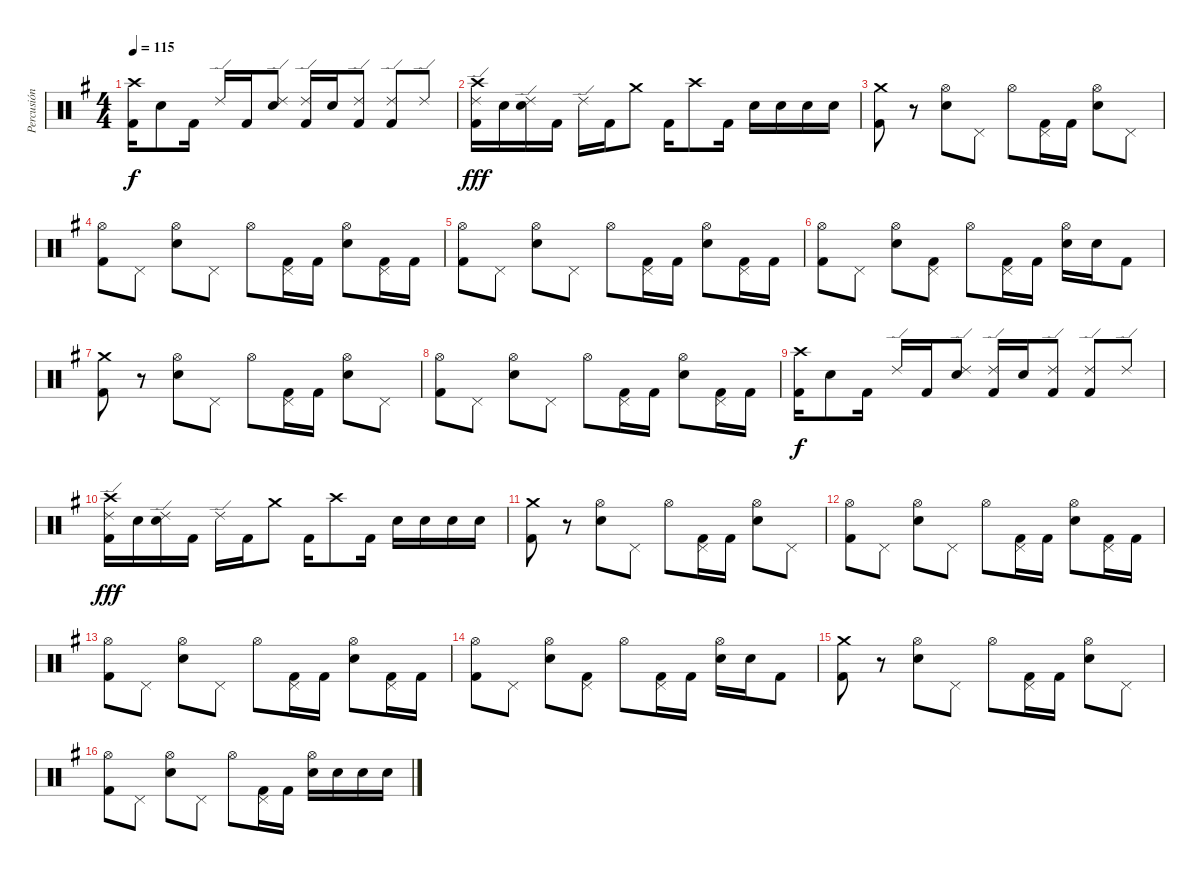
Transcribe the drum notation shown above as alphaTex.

\track ("Percusión" "Percusión") {instrument percussion}
\staff {score}
\articulation defaults
\ts (4 4)
\tempo 115
\clef neutral
\ks g
("Crash high (hit)" "Kick (hit) 2").16{dy f} "Electric Snare (hit)".8 "Kick (hit) 2".16 "Ride (edge) 2".16 "Kick (hit) 2".16 ("Ride (edge) 2" "Electric Snare (hit)").8 ("Ride (edge) 2" "Kick (hit) 2").16 "Electric Snare (hit)".16 ("Ride (edge) 2" "Kick (hit) 2").8 ("Ride (edge) 2" "Kick (hit) 2").8 "Ride (edge) 2".8 |
("Crash high (hit)" "Ride (edge) 2" "Kick (hit) 2").16{dy fff} "Electric Snare (hit)".16 ("Ride (edge) 2" "Electric Snare (hit)").16 "Kick (hit) 2".16 "Ride (edge) 2".16 "Kick (hit) 2".16 "Crash medium (hit)".8 "Kick (hit) 2".16 "Crash high (hit)".8 "Kick (hit) 2".16 "Electric Snare (hit)".16 "Electric Snare (hit)".16 "Electric Snare (hit)".16 "Electric Snare (hit)".16 |
("Crash medium (hit)" "Kick (hit) 2").8 r.8 ("Hi-Hat (open)" "Electric Snare (hit)").8 "Pedal Hi-Hat (hit)".8 "Hi-Hat (open)".8 ("Pedal Hi-Hat (hit)" "Kick (hit) 2").16 "Kick (hit) 2".16 ("Hi-Hat (open)" "Electric Snare (hit)").8 "Pedal Hi-Hat (hit)".8 |
("Hi-Hat (open)" "Kick (hit) 2").8 "Pedal Hi-Hat (hit)".8 ("Hi-Hat (open)" "Electric Snare (hit)").8 "Pedal Hi-Hat (hit)".8 "Hi-Hat (open)".8 ("Pedal Hi-Hat (hit)" "Kick (hit) 2").16 "Kick (hit) 2".16 ("Hi-Hat (open)" "Electric Snare (hit)").8 ("Pedal Hi-Hat (hit)" "Kick (hit) 2").16 "Kick (hit) 2".16 |
("Hi-Hat (open)" "Kick (hit) 2").8 "Pedal Hi-Hat (hit)".8 ("Hi-Hat (open)" "Electric Snare (hit)").8 "Pedal Hi-Hat (hit)".8 "Hi-Hat (open)".8 ("Pedal Hi-Hat (hit)" "Kick (hit) 2").16 "Kick (hit) 2".16 ("Hi-Hat (open)" "Electric Snare (hit)").8 ("Pedal Hi-Hat (hit)" "Kick (hit) 2").16 "Kick (hit) 2".16 |
("Hi-Hat (open)" "Kick (hit) 2").8 "Pedal Hi-Hat (hit)".8 ("Hi-Hat (open)" "Electric Snare (hit)").8 ("Pedal Hi-Hat (hit)" "Kick (hit) 2").8 "Hi-Hat (open)".8 ("Pedal Hi-Hat (hit)" "Kick (hit) 2").16 "Kick (hit) 2".16 ("Hi-Hat (open)" "Electric Snare (hit)").16 "Electric Snare (hit)".16 "Kick (hit) 2".8 |
("Crash medium (hit)" "Kick (hit) 2").8 r.8 ("Hi-Hat (open)" "Electric Snare (hit)").8 "Pedal Hi-Hat (hit)".8 "Hi-Hat (open)".8 ("Pedal Hi-Hat (hit)" "Kick (hit) 2").16 "Kick (hit) 2".16 ("Hi-Hat (open)" "Electric Snare (hit)").8 "Pedal Hi-Hat (hit)".8 |
("Hi-Hat (open)" "Kick (hit) 2").8 "Pedal Hi-Hat (hit)".8 ("Hi-Hat (open)" "Electric Snare (hit)").8 "Pedal Hi-Hat (hit)".8 "Hi-Hat (open)".8 ("Pedal Hi-Hat (hit)" "Kick (hit) 2").16 "Kick (hit) 2".16 ("Hi-Hat (open)" "Electric Snare (hit)").8 ("Pedal Hi-Hat (hit)" "Kick (hit) 2").16 "Kick (hit) 2".16 |
("Crash high (hit)" "Kick (hit) 2").16{dy f} "Electric Snare (hit)".8 "Kick (hit) 2".16 "Ride (edge) 2".16 "Kick (hit) 2".16 ("Ride (edge) 2" "Electric Snare (hit)").8 ("Ride (edge) 2" "Kick (hit) 2").16 "Electric Snare (hit)".16 ("Ride (edge) 2" "Kick (hit) 2").8 ("Ride (edge) 2" "Kick (hit) 2").8 "Ride (edge) 2".8 |
("Crash high (hit)" "Ride (edge) 2" "Kick (hit) 2").16{dy fff} "Electric Snare (hit)".16 ("Ride (edge) 2" "Electric Snare (hit)").16 "Kick (hit) 2".16 "Ride (edge) 2".16 "Kick (hit) 2".16 "Crash medium (hit)".8 "Kick (hit) 2".16 "Crash high (hit)".8 "Kick (hit) 2".16 "Electric Snare (hit)".16 "Electric Snare (hit)".16 "Electric Snare (hit)".16 "Electric Snare (hit)".16 |
("Crash medium (hit)" "Kick (hit) 2").8 r.8 ("Hi-Hat (open)" "Electric Snare (hit)").8 "Pedal Hi-Hat (hit)".8 "Hi-Hat (open)".8 ("Pedal Hi-Hat (hit)" "Kick (hit) 2").16 "Kick (hit) 2".16 ("Hi-Hat (open)" "Electric Snare (hit)").8 "Pedal Hi-Hat (hit)".8 |
("Hi-Hat (open)" "Kick (hit) 2").8 "Pedal Hi-Hat (hit)".8 ("Hi-Hat (open)" "Electric Snare (hit)").8 "Pedal Hi-Hat (hit)".8 "Hi-Hat (open)".8 ("Pedal Hi-Hat (hit)" "Kick (hit) 2").16 "Kick (hit) 2".16 ("Hi-Hat (open)" "Electric Snare (hit)").8 ("Pedal Hi-Hat (hit)" "Kick (hit) 2").16 "Kick (hit) 2".16 |
("Hi-Hat (open)" "Kick (hit) 2").8 "Pedal Hi-Hat (hit)".8 ("Hi-Hat (open)" "Electric Snare (hit)").8 "Pedal Hi-Hat (hit)".8 "Hi-Hat (open)".8 ("Pedal Hi-Hat (hit)" "Kick (hit) 2").16 "Kick (hit) 2".16 ("Hi-Hat (open)" "Electric Snare (hit)").8 ("Pedal Hi-Hat (hit)" "Kick (hit) 2").16 "Kick (hit) 2".16 |
("Hi-Hat (open)" "Kick (hit) 2").8 "Pedal Hi-Hat (hit)".8 ("Hi-Hat (open)" "Electric Snare (hit)").8 ("Pedal Hi-Hat (hit)" "Kick (hit) 2").8 "Hi-Hat (open)".8 ("Pedal Hi-Hat (hit)" "Kick (hit) 2").16 "Kick (hit) 2".16 ("Hi-Hat (open)" "Electric Snare (hit)").16 "Electric Snare (hit)".16 "Kick (hit) 2".8 |
("Crash medium (hit)" "Kick (hit) 2").8 r.8 ("Hi-Hat (open)" "Electric Snare (hit)").8 "Pedal Hi-Hat (hit)".8 "Hi-Hat (open)".8 ("Pedal Hi-Hat (hit)" "Kick (hit) 2").16 "Kick (hit) 2".16 ("Hi-Hat (open)" "Electric Snare (hit)").8 "Pedal Hi-Hat (hit)".8 |
("Hi-Hat (open)" "Kick (hit) 2").8 "Pedal Hi-Hat (hit)".8 ("Hi-Hat (open)" "Electric Snare (hit)").8 "Pedal Hi-Hat (hit)".8 "Hi-Hat (open)".8 ("Pedal Hi-Hat (hit)" "Kick (hit) 2").16 "Kick (hit) 2".16 ("Hi-Hat (open)" "Electric Snare (hit)").16 "Electric Snare (hit)".16 "Electric Snare (hit)".16 "Electric Snare (hit)".16
